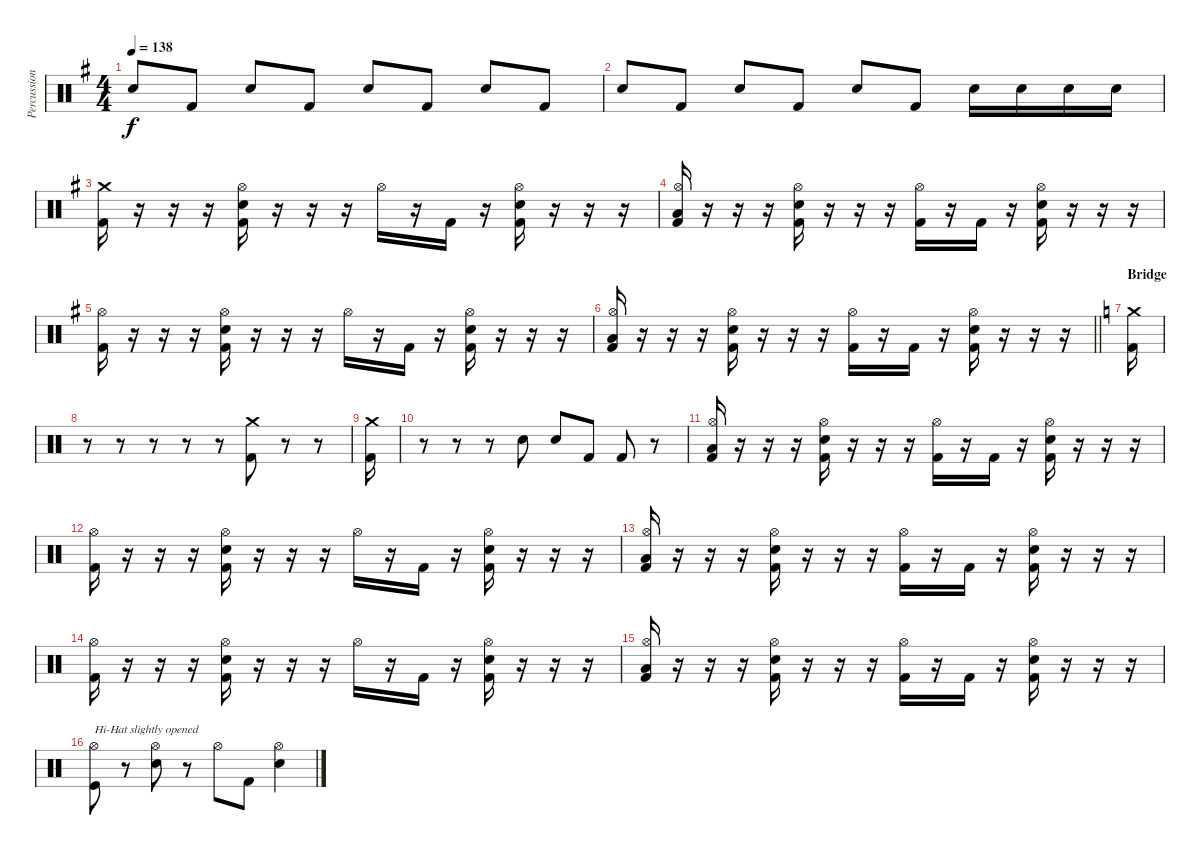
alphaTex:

\track ("Percussion" "Percussion") {instrument percussion}
\staff {score}
\articulation defaults
\ts (4 4)
\tempo 138
\clef neutral
\ks g "Electric Snare (hit)".8{dy f} "Kick (hit) 2".8 "Electric Snare (hit)".8 "Kick (hit) 2".8 "Electric Snare (hit)".8 "Kick (hit) 2".8 "Electric Snare (hit)".8 "Kick (hit) 2".8
|
"Electric Snare (hit)".8 "Kick (hit) 2".8 "Electric Snare (hit)".8 "Kick (hit) 2".8 "Electric Snare (hit)".8 "Kick (hit) 2".8 "Electric Snare (hit)".16 "Electric Snare (hit)".16 "Electric Snare (hit)".16 "Electric Snare (hit)".16 |
("Crash medium (hit)" "Kick (hit) 2").16 r.16 r.16 r.16 ("Hi-Hat (open)" "Electric Snare (hit)" "Kick (hit) 2").16 r.16 r.16 r.16 "Hi-Hat (open)".16 r.16 "Kick (hit) 2".16 r.16 ("Hi-Hat (open)" "Electric Snare (hit)" "Kick (hit) 2").16 r.16 r.16 r.16 |
("Hi-Hat (open)" "Low Tom (hit)" "Kick (hit) 2").16 r.16 r.16 r.16 ("Hi-Hat (open)" "Electric Snare (hit)" "Kick (hit) 2").16 r.16 r.16 r.16 ("Hi-Hat (open)" "Kick (hit) 2").16 r.16 "Kick (hit) 2".16 r.16 ("Hi-Hat (open)" "Electric Snare (hit)" "Kick (hit) 2").16 r.16 r.16 r.16 |
("Hi-Hat (open)" "Kick (hit) 2").16 r.16 r.16 r.16 ("Hi-Hat (open)" "Electric Snare (hit)" "Kick (hit) 2").16 r.16 r.16 r.16 "Hi-Hat (open)".16 r.16 "Kick (hit) 2".16 r.16 ("Hi-Hat (open)" "Electric Snare (hit)" "Kick (hit) 2").16 r.16 r.16 r.16 |
\barLineRight lightlight
("Hi-Hat (open)" "Low Tom (hit)" "Kick (hit) 2").16 r.16 r.16 r.16 ("Hi-Hat (open)" "Electric Snare (hit)" "Kick (hit) 2").16 r.16 r.16 r.16 ("Hi-Hat (open)" "Kick (hit) 2").16 r.16 "Kick (hit) 2".16 r.16 ("Hi-Hat (open)" "Electric Snare (hit)" "Kick (hit) 2").16 r.16 r.16 r.16 |
\section ("" "Bridge")
\ks c
("Kick (hit) 2" "Crash medium (hit)").16 |
r.8 r.8 r.8 r.8 r.8 ("Kick (hit) 2" "Crash medium (hit)").8 r.8 r.8 |
("Crash medium (hit)" "Kick (hit) 2").16 |
r.8 r.8 r.8 "Electric Snare (hit)".8 "Electric Snare (hit)".8 "Kick (hit) 2".8 "Kick (hit) 2".8 r.8 |
("Hi-Hat (open)" "Low Tom (hit)" "Kick (hit) 2").16 r.16 r.16 r.16 ("Hi-Hat (open)" "Electric Snare (hit)" "Kick (hit) 2").16 r.16 r.16 r.16 ("Hi-Hat (open)" "Kick (hit) 2").16 r.16 "Kick (hit) 2".16 r.16 ("Hi-Hat (open)" "Electric Snare (hit)" "Kick (hit) 2").16 r.16 r.16 r.16 |
("Hi-Hat (open)" "Kick (hit) 2").16 r.16 r.16 r.16 ("Hi-Hat (open)" "Electric Snare (hit)" "Kick (hit) 2").16 r.16 r.16 r.16 "Hi-Hat (open)".16 r.16 "Kick (hit) 2".16 r.16 ("Hi-Hat (open)" "Electric Snare (hit)" "Kick (hit) 2").16 r.16 r.16 r.16 |
("Hi-Hat (open)" "Low Tom (hit)" "Kick (hit) 2").16 r.16 r.16 r.16 ("Hi-Hat (open)" "Electric Snare (hit)" "Kick (hit) 2").16 r.16 r.16 r.16 ("Hi-Hat (open)" "Kick (hit) 2").16 r.16 "Kick (hit) 2".16 r.16 ("Hi-Hat (open)" "Electric Snare (hit)" "Kick (hit) 2").16 r.16 r.16 r.16 |
("Hi-Hat (open)" "Kick (hit) 2").16 r.16 r.16 r.16 ("Hi-Hat (open)" "Electric Snare (hit)" "Kick (hit) 2").16 r.16 r.16 r.16 "Hi-Hat (open)".16 r.16 "Kick (hit) 2".16 r.16 ("Hi-Hat (open)" "Electric Snare (hit)" "Kick (hit) 2").16 r.16 r.16 r.16 |
("Hi-Hat (open)" "Low Tom (hit)" "Kick (hit) 2").16 r.16 r.16 r.16 ("Hi-Hat (open)" "Electric Snare (hit)" "Kick (hit) 2").16 r.16 r.16 r.16 ("Hi-Hat (open)" "Kick (hit) 2").16 r.16 "Kick (hit) 2".16 r.16 ("Hi-Hat (open)" "Electric Snare (hit)" "Kick (hit) 2").16 r.16 r.16 r.16 |
("Hi-Hat (open)" "Kick (hit)").8{txt "Hi-Hat slightly opened"} r.8 ("Hi-Hat (open)" "Electric Snare (hit)").8 r.8 "Hi-Hat (open)".8 "Kick (hit) 2".8 ("Hi-Hat (open)" "Electric Snare (hit)").4
